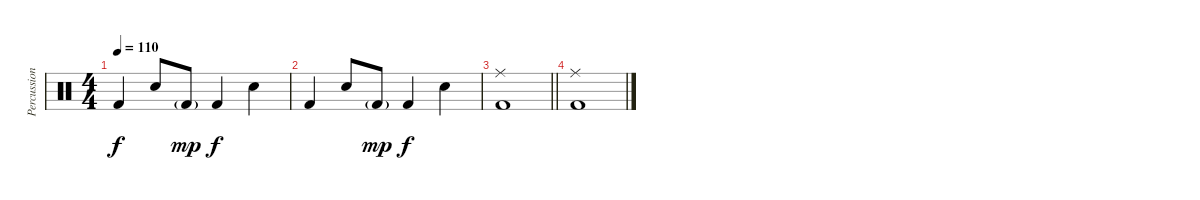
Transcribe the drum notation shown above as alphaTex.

\track ("Percussion" "Percussion") {instrument percussion}
\staff {score}
\articulation defaults
\ts (4 4)
\tempo 110
\clef neutral
\ks c "Kick (hit) 2".4{dy f} "Snare (hit) 2".8 "Kick (hit) 2"{g}.8{dy mp} "Kick (hit) 2".4{dy f} "Snare (hit) 2".4
|
"Kick (hit) 2".4 "Snare (hit) 2".8 "Kick (hit) 2"{g}.8{dy mp} "Kick (hit) 2".4{dy f} "Snare (hit) 2".4 |
\barLineRight lightlight
("Ride (middle)" "Kick (hit) 2").1 |
("Ride (middle)" "Kick (hit) 2").1
